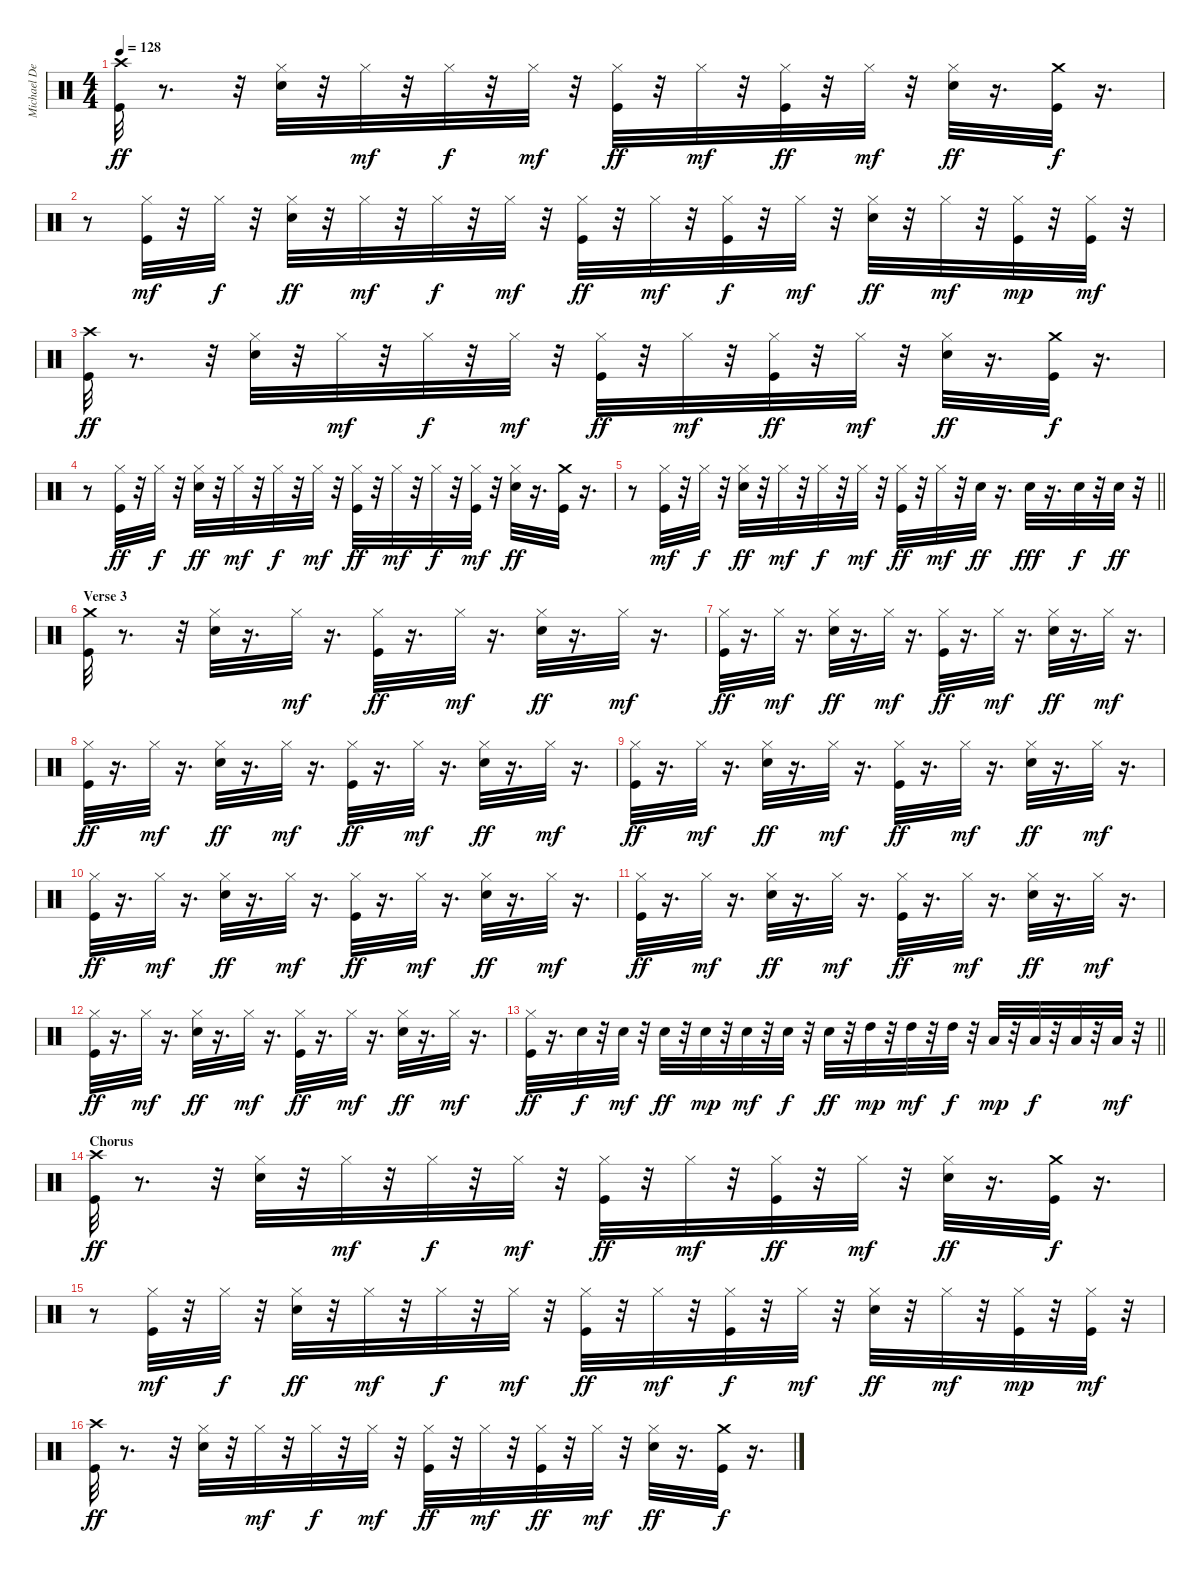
\track ("Michael DeRosier" "Michael De") {instrument percussion}
\staff {score}
\articulation defaults
\ts (4 4)
\tempo 128
\clef neutral
\ks c
("Kick (hit)" "Crash high (hit)").32{dy ff} r.8{d} r.32 ("Snare (hit) 2" "Hi-Hat (closed)").32 r.32 "Hi-Hat (closed)".32{dy mf} r.32 "Hi-Hat (closed)".32{dy f} r.32 "Hi-Hat (closed)".32{dy mf} r.32 ("Hi-Hat (closed)" "Kick (hit)").32{dy ff} r.32 "Hi-Hat (closed)".32{dy mf} r.32 ("Hi-Hat (closed)" "Kick (hit)").32{dy ff} r.32 "Hi-Hat (closed)".32{dy mf} r.32 ("Snare (hit) 2" "Hi-Hat (closed)").32{dy ff} r.16{d} ("Kick (hit)" "Crash medium (hit)").32{dy f} r.16{d} |
r.8 ("Hi-Hat (closed)" "Kick (hit)").32{dy mf} r.32 "Hi-Hat (closed)".32{dy f} r.32 ("Snare (hit) 2" "Hi-Hat (closed)").32{dy ff} r.32 "Hi-Hat (closed)".32{dy mf} r.32 "Hi-Hat (closed)".32{dy f} r.32 "Hi-Hat (closed)".32{dy mf} r.32 ("Kick (hit)" "Hi-Hat (closed)").32{dy ff} r.32 "Hi-Hat (closed)".32{dy mf} r.32 ("Hi-Hat (closed)" "Kick (hit)").32{dy f} r.32 "Hi-Hat (closed)".32{dy mf} r.32 ("Snare (hit) 2" "Hi-Hat (closed)").32{dy ff} r.32 "Hi-Hat (closed)".32{dy mf} r.32 ("Hi-Hat (closed)" "Kick (hit)").32{dy mp} r.32 ("Hi-Hat (closed)" "Kick (hit)").32{dy mf} r.32 |
("Kick (hit)" "Crash high (hit)").32{dy ff} r.8{d} r.32 ("Snare (hit) 2" "Hi-Hat (closed)").32 r.32 "Hi-Hat (closed)".32{dy mf} r.32 "Hi-Hat (closed)".32{dy f} r.32 "Hi-Hat (closed)".32{dy mf} r.32 ("Hi-Hat (closed)" "Kick (hit)").32{dy ff} r.32 "Hi-Hat (closed)".32{dy mf} r.32 ("Kick (hit)" "Hi-Hat (closed)").32{dy ff} r.32 "Hi-Hat (closed)".32{dy mf} r.32 ("Snare (hit) 2" "Hi-Hat (closed)").32{dy ff} r.16{d} ("Kick (hit)" "Crash medium (hit)").32{dy f} r.16{d} |
r.8 ("Hi-Hat (closed)" "Kick (hit)").32{dy ff} r.32 "Hi-Hat (closed)".32{dy f} r.32 ("Snare (hit) 2" "Hi-Hat (closed)").32{dy ff} r.32 "Hi-Hat (closed)".32{dy mf} r.32 "Hi-Hat (closed)".32{dy f} r.32 "Hi-Hat (closed)".32{dy mf} r.32 ("Hi-Hat (closed)" "Kick (hit)").32{dy ff} r.32 "Hi-Hat (closed)".32{dy mf} r.32 "Hi-Hat (closed)".32{dy f} r.32 ("Hi-Hat (closed)" "Kick (hit)").32{dy mf} r.32 ("Snare (hit) 2" "Hi-Hat (closed)").32{dy ff} r.16{d} ("Kick (hit)" "Crash medium (hit)").32 r.16{d} |
\barLineRight lightlight
r.8 ("Hi-Hat (closed)" "Kick (hit)").32{dy mf} r.32 "Hi-Hat (closed)".32{dy f} r.32 ("Snare (hit) 2" "Hi-Hat (closed)").32{dy ff} r.32 "Hi-Hat (closed)".32{dy mf} r.32 "Hi-Hat (closed)".32{dy f} r.32 "Hi-Hat (closed)".32{dy mf} r.32 ("Hi-Hat (closed)" "Kick (hit)").32{dy ff} r.32 "Hi-Hat (closed)".32{dy mf} r.32 "Snare (hit) 2".32{dy ff} r.16{d} "Snare (hit) 2".32{dy fff} r.16{d} "Snare (hit) 2".32{dy f} r.32 "Snare (hit) 2".32{dy ff} r.32 |
\section ("" "Verse 3")
("Kick (hit)" "Crash medium (hit)").32 r.8{d} r.32 ("Snare (hit) 2" "Hi-Hat (closed)").32 r.16{d} "Hi-Hat (closed)".32{dy mf} r.16{d} ("Hi-Hat (closed)" "Kick (hit)").32{dy ff} r.16{d} "Hi-Hat (closed)".32{dy mf} r.16{d} ("Snare (hit) 2" "Hi-Hat (closed)").32{dy ff} r.16{d} "Hi-Hat (closed)".32{dy mf} r.16{d} |
("Hi-Hat (closed)" "Kick (hit)").32{dy ff} r.16{d} "Hi-Hat (closed)".32{dy mf} r.16{d} ("Snare (hit) 2" "Hi-Hat (closed)").32{dy ff} r.16{d} "Hi-Hat (closed)".32{dy mf} r.16{d} ("Hi-Hat (closed)" "Kick (hit)").32{dy ff} r.16{d} "Hi-Hat (closed)".32{dy mf} r.16{d} ("Snare (hit) 2" "Hi-Hat (closed)").32{dy ff} r.16{d} "Hi-Hat (closed)".32{dy mf} r.16{d} |
("Hi-Hat (closed)" "Kick (hit)").32{dy ff} r.16{d} "Hi-Hat (closed)".32{dy mf} r.16{d} ("Snare (hit) 2" "Hi-Hat (closed)").32{dy ff} r.16{d} "Hi-Hat (closed)".32{dy mf} r.16{d} ("Hi-Hat (closed)" "Kick (hit)").32{dy ff} r.16{d} "Hi-Hat (closed)".32{dy mf} r.16{d} ("Snare (hit) 2" "Hi-Hat (closed)").32{dy ff} r.16{d} "Hi-Hat (closed)".32{dy mf} r.16{d} |
("Hi-Hat (closed)" "Kick (hit)").32{dy ff} r.16{d} "Hi-Hat (closed)".32{dy mf} r.16{d} ("Snare (hit) 2" "Hi-Hat (closed)").32{dy ff} r.16{d} "Hi-Hat (closed)".32{dy mf} r.16{d} ("Hi-Hat (closed)" "Kick (hit)").32{dy ff} r.16{d} "Hi-Hat (closed)".32{dy mf} r.16{d} ("Snare (hit) 2" "Hi-Hat (closed)").32{dy ff} r.16{d} "Hi-Hat (closed)".32{dy mf} r.16{d} |
("Hi-Hat (closed)" "Kick (hit)").32{dy ff} r.16{d} "Hi-Hat (closed)".32{dy mf} r.16{d} ("Snare (hit) 2" "Hi-Hat (closed)").32{dy ff} r.16{d} "Hi-Hat (closed)".32{dy mf} r.16{d} ("Hi-Hat (closed)" "Kick (hit)").32{dy ff} r.16{d} "Hi-Hat (closed)".32{dy mf} r.16{d} ("Snare (hit) 2" "Hi-Hat (closed)").32{dy ff} r.16{d} "Hi-Hat (closed)".32{dy mf} r.16{d} |
("Hi-Hat (closed)" "Kick (hit)").32{dy ff} r.16{d} "Hi-Hat (closed)".32{dy mf} r.16{d} ("Snare (hit) 2" "Hi-Hat (closed)").32{dy ff} r.16{d} "Hi-Hat (closed)".32{dy mf} r.16{d} ("Hi-Hat (closed)" "Kick (hit)").32{dy ff} r.16{d} "Hi-Hat (closed)".32{dy mf} r.16{d} ("Snare (hit) 2" "Hi-Hat (closed)").32{dy ff} r.16{d} "Hi-Hat (closed)".32{dy mf} r.16{d} |
("Hi-Hat (closed)" "Kick (hit)").32{dy ff} r.16{d} "Hi-Hat (closed)".32{dy mf} r.16{d} ("Snare (hit) 2" "Hi-Hat (closed)").32{dy ff} r.16{d} "Hi-Hat (closed)".32{dy mf} r.16{d} ("Hi-Hat (closed)" "Kick (hit)").32{dy ff} r.16{d} "Hi-Hat (closed)".32{dy mf} r.16{d} ("Snare (hit) 2" "Hi-Hat (closed)").32{dy ff} r.16{d} "Hi-Hat (closed)".32{dy mf} r.16{d} |
\barLineRight lightlight
("Hi-Hat (closed)" "Kick (hit)").32{dy ff} r.16{d} "Snare (hit) 2".32{dy f} r.32 "Snare (hit) 2".32{dy mf} r.32 "Snare (hit) 2".32{dy ff} r.32 "Snare (hit) 2".32{dy mp} r.32 "Snare (hit) 2".32{dy mf} r.32 "Snare (hit) 2".32{dy f} r.32 "Snare (hit) 2".32{dy ff} r.32 "High Tom (hit)".32{dy mp} r.32 "High Tom (hit)".32{dy mf} r.32 "High Tom (hit)".32{dy f} r.32 "Low Tom (hit)".32{dy mp} r.32 "Low Tom (hit)".32{dy f} r.32 "Low Floor Tom (hit)".32 r.32 "Low Floor Tom (hit)".32{dy mf} r.32 |
\section ("" "Chorus")
("Kick (hit)" "Crash high (hit)").32{dy ff} r.8{d} r.32 ("Snare (hit) 2" "Hi-Hat (closed)").32 r.32 "Hi-Hat (closed)".32{dy mf} r.32 "Hi-Hat (closed)".32{dy f} r.32 "Hi-Hat (closed)".32{dy mf} r.32 ("Hi-Hat (closed)" "Kick (hit)").32{dy ff} r.32 "Hi-Hat (closed)".32{dy mf} r.32 ("Hi-Hat (closed)" "Kick (hit)").32{dy ff} r.32 "Hi-Hat (closed)".32{dy mf} r.32 ("Snare (hit) 2" "Hi-Hat (closed)").32{dy ff} r.16{d} ("Kick (hit)" "Crash medium (hit)").32{dy f} r.16{d} |
r.8 ("Hi-Hat (closed)" "Kick (hit)").32{dy mf} r.32 "Hi-Hat (closed)".32{dy f} r.32 ("Snare (hit) 2" "Hi-Hat (closed)").32{dy ff} r.32 "Hi-Hat (closed)".32{dy mf} r.32 "Hi-Hat (closed)".32{dy f} r.32 "Hi-Hat (closed)".32{dy mf} r.32 ("Hi-Hat (closed)" "Kick (hit)").32{dy ff} r.32 "Hi-Hat (closed)".32{dy mf} r.32 ("Hi-Hat (closed)" "Kick (hit)").32{dy f} r.32 "Hi-Hat (closed)".32{dy mf} r.32 ("Snare (hit) 2" "Hi-Hat (closed)").32{dy ff} r.32 "Hi-Hat (closed)".32{dy mf} r.32 ("Hi-Hat (closed)" "Kick (hit)").32{dy mp} r.32 ("Kick (hit)" "Hi-Hat (closed)").32{dy mf} r.32 |
("Kick (hit)" "Crash high (hit)").32{dy ff} r.8{d} r.32 ("Snare (hit) 2" "Hi-Hat (closed)").32 r.32 "Hi-Hat (closed)".32{dy mf} r.32 "Hi-Hat (closed)".32{dy f} r.32 "Hi-Hat (closed)".32{dy mf} r.32 ("Hi-Hat (closed)" "Kick (hit)").32{dy ff} r.32 "Hi-Hat (closed)".32{dy mf} r.32 ("Hi-Hat (closed)" "Kick (hit)").32{dy ff} r.32 "Hi-Hat (closed)".32{dy mf} r.32 ("Snare (hit) 2" "Hi-Hat (closed)").32{dy ff} r.16{d} ("Kick (hit)" "Crash medium (hit)").32{dy f} r.16{d}
